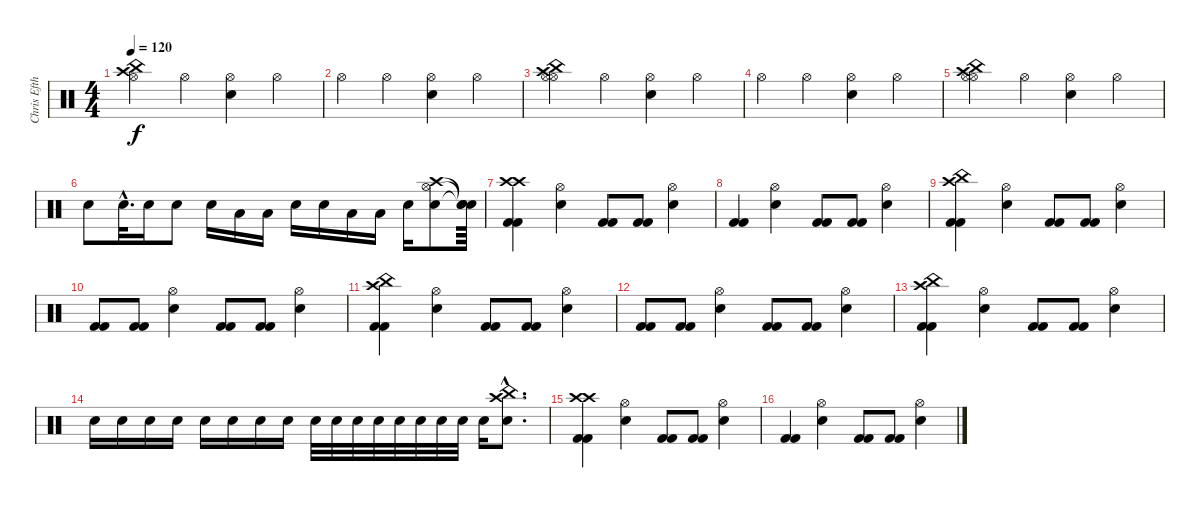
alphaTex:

\track ("Chris Efthimiadis" "Chris Efth") {instrument percussion}
\staff {score}
\articulation defaults
\ts (4 4)
\tempo 120
\clef neutral
\ks c
("Crash high (hit)" "Hi-Hat (open)" "China (hit)").4{dy f} "Hi-Hat (open)".4 ("Hi-Hat (open)" "Snare (hit) 2").4 "Hi-Hat (open)".4 |
"Hi-Hat (open)".4 "Hi-Hat (open)".4 ("Hi-Hat (open)" "Snare (hit) 2").4 "Hi-Hat (open)".4 |
("China (hit)" "Hi-Hat (open)" "Crash high (hit)" "Hi-Hat (open)").4 "Hi-Hat (open)".4 ("Snare (hit) 2" "Hi-Hat (open)").4 "Hi-Hat (open)".4 |
"Hi-Hat (open)".4 "Hi-Hat (open)".4 ("Snare (hit) 2" "Hi-Hat (open)").4 "Hi-Hat (open)".4 |
("China (hit)" "Hi-Hat (open)" "Crash high (hit)" "Hi-Hat (open)").4 "Hi-Hat (open)".4 ("Hi-Hat (open)" "Snare (hit) 2").4 "Hi-Hat (open)".4 |
"Snare (hit) 2".8 "Snare (hit) 2"{hac}.32{d} "Snare (hit) 2".16 "Snare (hit) 2".8 "Snare (hit) 2".16 "Low Tom (hit)".16 "Low Tom (hit)".16 "Snare (hit) 2".16 "Snare (hit) 2".16 "Low Tom (hit)".16 "Low Tom (hit)".16 "Snare (hit) 2".16 ("Crash high (hit)" "Snare (hit) 2" "Hi-Hat (open)").8 ("Snare (hit)"{t} "Snare (hit)"{t} "Snare (hit)"{t}).64 |
("Crash high (hit)" "Kick (hit) 2" "Kick (hit) 2" "Crash high (hit)").4 ("Snare (hit) 2" "Hi-Hat (open)").4 ("Kick (hit) 2" "Kick (hit) 2").8 ("Kick (hit) 2" "Kick (hit) 2").8 ("Snare (hit) 2" "Hi-Hat (open)").4 |
("Kick (hit) 2" "Kick (hit) 2").4 ("Hi-Hat (open)" "Snare (hit) 2").4 ("Kick (hit) 2" "Kick (hit) 2").8 ("Kick (hit) 2" "Kick (hit) 2").8 ("Hi-Hat (open)" "Snare (hit) 2").4 |
("Crash high (hit)" "Kick (hit) 2" "Kick (hit) 2" "China (hit)").4 ("Snare (hit) 2" "Hi-Hat (open)").4 ("Kick (hit) 2" "Kick (hit) 2").8 ("Kick (hit) 2" "Kick (hit) 2").8 ("Snare (hit) 2" "Hi-Hat (open)").4 |
("Kick (hit) 2" "Kick (hit) 2").8 ("Kick (hit) 2" "Kick (hit) 2").8 ("Snare (hit) 2" "Hi-Hat (open)").4 ("Kick (hit) 2" "Kick (hit) 2").8 ("Kick (hit) 2" "Kick (hit) 2").8 ("Snare (hit) 2" "Hi-Hat (open)").4 |
("Crash high (hit)" "Kick (hit) 2" "Kick (hit) 2" "China (hit)").4 ("Snare (hit) 2" "Hi-Hat (open)").4 ("Kick (hit) 2" "Kick (hit) 2").8 ("Kick (hit) 2" "Kick (hit) 2").8 ("Snare (hit) 2" "Hi-Hat (open)").4 |
("Kick (hit) 2" "Kick (hit) 2").8 ("Kick (hit) 2" "Kick (hit) 2").8 ("Snare (hit) 2" "Hi-Hat (open)").4 ("Kick (hit) 2" "Kick (hit) 2").8 ("Kick (hit) 2" "Kick (hit) 2").8 ("Hi-Hat (open)" "Snare (hit) 2").4 |
("Crash high (hit)" "Kick (hit) 2" "Kick (hit) 2" "China (hit)").4 ("Snare (hit) 2" "Hi-Hat (open)").4 ("Kick (hit) 2" "Kick (hit) 2").8 ("Kick (hit) 2" "Kick (hit) 2").8 ("Snare (hit) 2" "Hi-Hat (open)").4 |
"Snare (hit) 2".16 "Snare (hit) 2".16 "Snare (hit) 2".16 "Snare (hit) 2".16 "Snare (hit) 2".16 "Snare (hit) 2".16 "Snare (hit) 2".16 "Snare (hit) 2".16 "Snare (hit) 2".32 "Snare (hit) 2".32 "Snare (hit) 2".32 "Snare (hit) 2".32 "Snare (hit) 2".32 "Snare (hit) 2".32 "Snare (hit) 2".32 "Snare (hit) 2".32 "Snare (hit) 2".16 ("Crash high (hit)"{hac} "Snare (hit) 2"{hac} "China (hit)"{hac}).8{d} |
("Crash high (hit)" "Kick (hit) 2" "Kick (hit) 2" "Crash high (hit)").4 ("Snare (hit) 2" "Hi-Hat (open)").4 ("Kick (hit) 2" "Kick (hit) 2").8 ("Kick (hit) 2" "Kick (hit) 2").8 ("Snare (hit) 2" "Hi-Hat (open)").4 |
("Kick (hit) 2" "Kick (hit) 2").4 ("Hi-Hat (open)" "Snare (hit) 2").4 ("Kick (hit) 2" "Kick (hit) 2").8 ("Kick (hit) 2" "Kick (hit) 2").8 ("Hi-Hat (open)" "Snare (hit) 2").4
